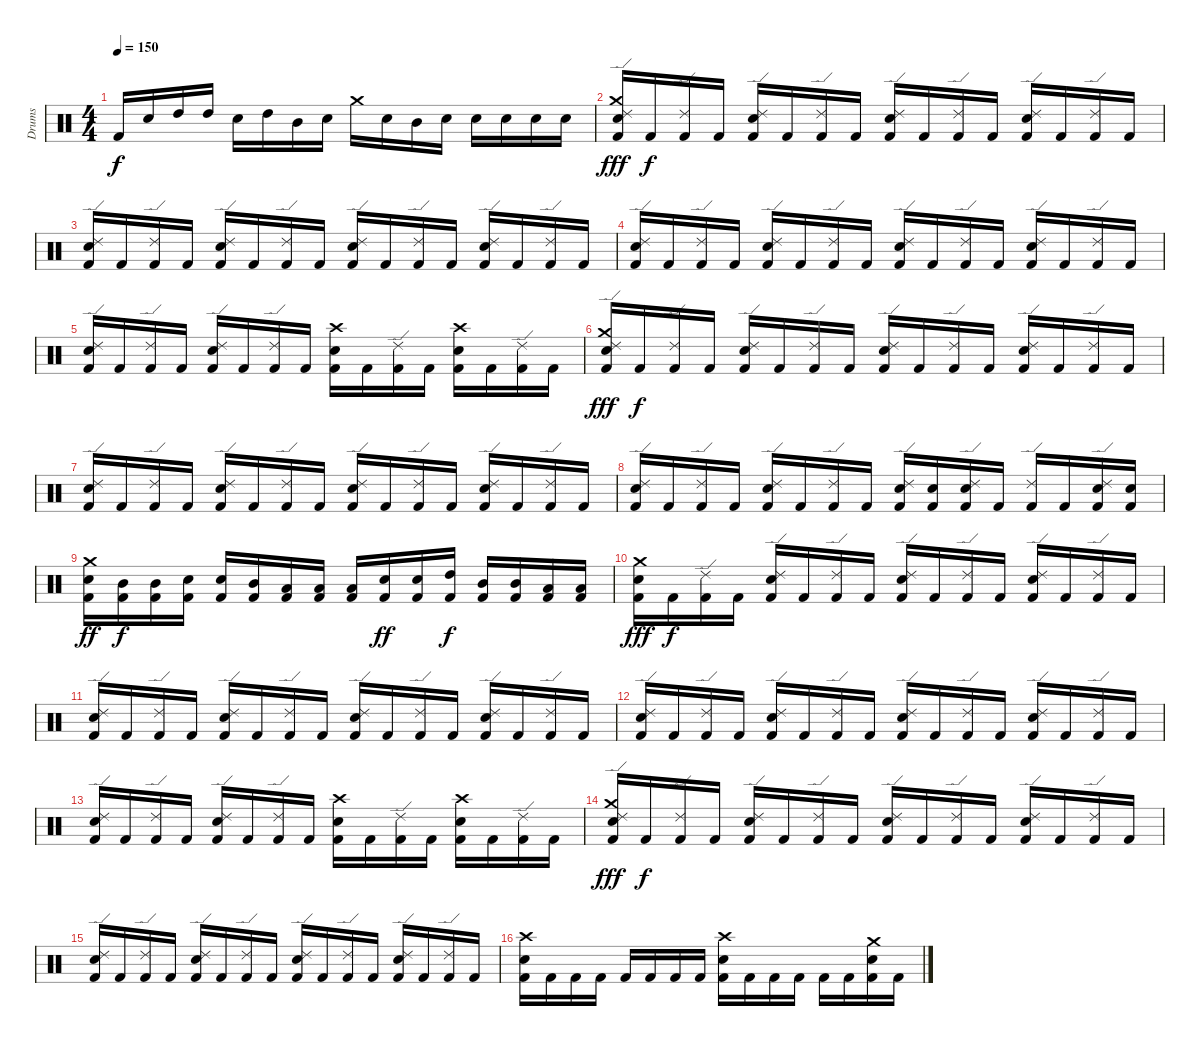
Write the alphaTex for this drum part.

\track ("Drums" "Drums") {instrument percussion}
\staff {score}
\articulation defaults
\ts (4 4)
\tempo 150
\clef neutral
\ks c "Kick (hit) 2".16{dy f} "Electric Snare (hit)".16 "High Tom (hit)".16 "High Tom (hit)".16 "Electric Snare (hit)".16 "High Tom (hit)".16 "Mid Tom (hit)".16 "Electric Snare (hit)".16 "Crash medium (hit)".16 "Electric Snare (hit)".16 "Mid Tom (hit)".16 "Electric Snare (hit)".16 "Electric Snare (hit)".16 "Electric Snare (hit)".16 "Electric Snare (hit)".16 "Electric Snare (hit)".16
|
("Crash medium (hit)" "Ride (edge) 2" "Electric Snare (hit)" "Kick (hit) 2").16{dy fff} "Kick (hit) 2".16{dy f} ("Ride (edge) 2" "Kick (hit) 2").16 "Kick (hit) 2".16 ("Ride (edge) 2" "Electric Snare (hit)" "Kick (hit) 2").16 "Kick (hit) 2".16 ("Ride (edge) 2" "Kick (hit) 2").16 "Kick (hit) 2".16 ("Ride (edge) 2" "Electric Snare (hit)" "Kick (hit) 2").16 "Kick (hit) 2".16 ("Ride (edge) 2" "Kick (hit) 2").16 "Kick (hit) 2".16 ("Ride (edge) 2" "Electric Snare (hit)" "Kick (hit) 2").16 "Kick (hit) 2".16 ("Ride (edge) 2" "Kick (hit) 2").16 "Kick (hit) 2".16 |
("Ride (edge) 2" "Electric Snare (hit)" "Kick (hit) 2").16 "Kick (hit) 2".16 ("Ride (edge) 2" "Kick (hit) 2").16 "Kick (hit) 2".16 ("Ride (edge) 2" "Electric Snare (hit)" "Kick (hit) 2").16 "Kick (hit) 2".16 ("Ride (edge) 2" "Kick (hit) 2").16 "Kick (hit) 2".16 ("Ride (edge) 2" "Electric Snare (hit)" "Kick (hit) 2").16 "Kick (hit) 2".16 ("Ride (edge) 2" "Kick (hit) 2").16 "Kick (hit) 2".16 ("Ride (edge) 2" "Electric Snare (hit)" "Kick (hit) 2").16 "Kick (hit) 2".16 ("Ride (edge) 2" "Kick (hit) 2").16 "Kick (hit) 2".16 |
("Ride (edge) 2" "Electric Snare (hit)" "Kick (hit) 2").16 "Kick (hit) 2".16 ("Ride (edge) 2" "Kick (hit) 2").16 "Kick (hit) 2".16 ("Ride (edge) 2" "Electric Snare (hit)" "Kick (hit) 2").16 "Kick (hit) 2".16 ("Ride (edge) 2" "Kick (hit) 2").16 "Kick (hit) 2".16 ("Ride (edge) 2" "Electric Snare (hit)" "Kick (hit) 2").16 "Kick (hit) 2".16 ("Ride (edge) 2" "Kick (hit) 2").16 "Kick (hit) 2".16 ("Ride (edge) 2" "Electric Snare (hit)" "Kick (hit) 2").16 "Kick (hit) 2".16 ("Ride (edge) 2" "Kick (hit) 2").16 "Kick (hit) 2".16 |
("Ride (edge) 2" "Electric Snare (hit)" "Kick (hit) 2").16 "Kick (hit) 2".16 ("Ride (edge) 2" "Kick (hit) 2").16 "Kick (hit) 2".16 ("Ride (edge) 2" "Electric Snare (hit)" "Kick (hit) 2").16 "Kick (hit) 2".16 ("Ride (edge) 2" "Kick (hit) 2").16 "Kick (hit) 2".16 ("Crash high (hit)" "Electric Snare (hit)" "Kick (hit) 2").16 "Kick (hit) 2".16 ("Ride (edge) 2" "Kick (hit) 2").16 "Kick (hit) 2".16 ("Crash high (hit)" "Electric Snare (hit)" "Kick (hit) 2").16 "Kick (hit) 2".16 ("Ride (edge) 2" "Kick (hit) 2").16 "Kick (hit) 2".16 |
("Crash medium (hit)" "Ride (edge) 2" "Electric Snare (hit)" "Kick (hit) 2").16{dy fff} "Kick (hit) 2".16{dy f} ("Ride (edge) 2" "Kick (hit) 2").16 "Kick (hit) 2".16 ("Ride (edge) 2" "Electric Snare (hit)" "Kick (hit) 2").16 "Kick (hit) 2".16 ("Ride (edge) 2" "Kick (hit) 2").16 "Kick (hit) 2".16 ("Ride (edge) 2" "Electric Snare (hit)" "Kick (hit) 2").16 "Kick (hit) 2".16 ("Ride (edge) 2" "Kick (hit) 2").16 "Kick (hit) 2".16 ("Ride (edge) 2" "Electric Snare (hit)" "Kick (hit) 2").16 "Kick (hit) 2".16 ("Ride (edge) 2" "Kick (hit) 2").16 "Kick (hit) 2".16 |
("Ride (edge) 2" "Electric Snare (hit)" "Kick (hit) 2").16 "Kick (hit) 2".16 ("Ride (edge) 2" "Kick (hit) 2").16 "Kick (hit) 2".16 ("Ride (edge) 2" "Electric Snare (hit)" "Kick (hit) 2").16 "Kick (hit) 2".16 ("Ride (edge) 2" "Kick (hit) 2").16 "Kick (hit) 2".16 ("Ride (edge) 2" "Electric Snare (hit)" "Kick (hit) 2").16 "Kick (hit) 2".16 ("Ride (edge) 2" "Kick (hit) 2").16 "Kick (hit) 2".16 ("Ride (edge) 2" "Electric Snare (hit)" "Kick (hit) 2").16 "Kick (hit) 2".16 ("Ride (edge) 2" "Kick (hit) 2").16 "Kick (hit) 2".16 |
("Ride (edge) 2" "Electric Snare (hit)" "Kick (hit) 2").16 "Kick (hit) 2".16 ("Ride (edge) 2" "Kick (hit) 2").16 "Kick (hit) 2".16 ("Ride (edge) 2" "Electric Snare (hit)" "Kick (hit) 2").16 "Kick (hit) 2".16 ("Ride (edge) 2" "Kick (hit) 2").16 "Kick (hit) 2".16 ("Ride (edge) 2" "Electric Snare (hit)" "Kick (hit) 2").16 ("Electric Snare (hit)" "Kick (hit) 2").16 ("Ride (edge) 2" "Electric Snare (hit)" "Kick (hit) 2").16 "Kick (hit) 2".16 ("Ride (edge) 2" "Kick (hit) 2").16 "Kick (hit) 2".16 ("Ride (edge) 2" "Electric Snare (hit)" "Kick (hit) 2").16 ("Electric Snare (hit)" "Kick (hit) 2").16 |
("Crash medium (hit)" "Electric Snare (hit)" "Kick (hit) 2").16{dy ff} ("Mid Tom (hit)" "Kick (hit) 2").16{dy f} ("Mid Tom (hit)" "Kick (hit) 2").16 ("Electric Snare (hit)" "Kick (hit) 2").16 ("Electric Snare (hit)" "Kick (hit) 2").16 ("Mid Tom (hit)" "Kick (hit) 2").16 ("Low Tom (hit)" "Kick (hit) 2").16 ("Low Tom (hit)" "Kick (hit) 2").16 ("Low Tom (hit)" "Kick (hit) 2").16 ("Electric Snare (hit)" "Kick (hit) 2").16{dy ff} ("Electric Snare (hit)" "Kick (hit) 2").16 ("High Tom (hit)" "Kick (hit) 2").16{dy f} ("Mid Tom (hit)" "Kick (hit) 2").16 ("Mid Tom (hit)" "Kick (hit) 2").16 ("Low Tom (hit)" "Kick (hit) 2").16 ("Low Tom (hit)" "Kick (hit) 2").16 |
("Crash medium (hit)" "Electric Snare (hit)" "Kick (hit) 2").16{dy fff} "Kick (hit) 2".16{dy f} ("Ride (edge) 2" "Kick (hit) 2").16 "Kick (hit) 2".16 ("Ride (edge) 2" "Electric Snare (hit)" "Kick (hit) 2").16 "Kick (hit) 2".16 ("Ride (edge) 2" "Kick (hit) 2").16 "Kick (hit) 2".16 ("Ride (edge) 2" "Electric Snare (hit)" "Kick (hit) 2").16 "Kick (hit) 2".16 ("Ride (edge) 2" "Kick (hit) 2").16 "Kick (hit) 2".16 ("Ride (edge) 2" "Electric Snare (hit)" "Kick (hit) 2").16 "Kick (hit) 2".16 ("Ride (edge) 2" "Kick (hit) 2").16 "Kick (hit) 2".16 |
("Ride (edge) 2" "Electric Snare (hit)" "Kick (hit) 2").16 "Kick (hit) 2".16 ("Ride (edge) 2" "Kick (hit) 2").16 "Kick (hit) 2".16 ("Ride (edge) 2" "Electric Snare (hit)" "Kick (hit) 2").16 "Kick (hit) 2".16 ("Ride (edge) 2" "Kick (hit) 2").16 "Kick (hit) 2".16 ("Ride (edge) 2" "Electric Snare (hit)" "Kick (hit) 2").16 "Kick (hit) 2".16 ("Ride (edge) 2" "Kick (hit) 2").16 "Kick (hit) 2".16 ("Ride (edge) 2" "Electric Snare (hit)" "Kick (hit) 2").16 "Kick (hit) 2".16 ("Ride (edge) 2" "Kick (hit) 2").16 "Kick (hit) 2".16 |
("Ride (edge) 2" "Electric Snare (hit)" "Kick (hit) 2").16 "Kick (hit) 2".16 ("Ride (edge) 2" "Kick (hit) 2").16 "Kick (hit) 2".16 ("Ride (edge) 2" "Electric Snare (hit)" "Kick (hit) 2").16 "Kick (hit) 2".16 ("Ride (edge) 2" "Kick (hit) 2").16 "Kick (hit) 2".16 ("Ride (edge) 2" "Electric Snare (hit)" "Kick (hit) 2").16 "Kick (hit) 2".16 ("Ride (edge) 2" "Kick (hit) 2").16 "Kick (hit) 2".16 ("Ride (edge) 2" "Electric Snare (hit)" "Kick (hit) 2").16 "Kick (hit) 2".16 ("Ride (edge) 2" "Kick (hit) 2").16 "Kick (hit) 2".16 |
("Ride (edge) 2" "Electric Snare (hit)" "Kick (hit) 2").16 "Kick (hit) 2".16 ("Ride (edge) 2" "Kick (hit) 2").16 "Kick (hit) 2".16 ("Ride (edge) 2" "Electric Snare (hit)" "Kick (hit) 2").16 "Kick (hit) 2".16 ("Ride (edge) 2" "Kick (hit) 2").16 "Kick (hit) 2".16 ("Crash high (hit)" "Electric Snare (hit)" "Kick (hit) 2").16 "Kick (hit) 2".16 ("Ride (edge) 2" "Kick (hit) 2").16 "Kick (hit) 2".16 ("Crash high (hit)" "Electric Snare (hit)" "Kick (hit) 2").16 "Kick (hit) 2".16 ("Ride (edge) 2" "Kick (hit) 2").16 "Kick (hit) 2".16 |
("Crash medium (hit)" "Ride (edge) 2" "Electric Snare (hit)" "Kick (hit) 2").16{dy fff} "Kick (hit) 2".16{dy f} ("Ride (edge) 2" "Kick (hit) 2").16 "Kick (hit) 2".16 ("Ride (edge) 2" "Electric Snare (hit)" "Kick (hit) 2").16 "Kick (hit) 2".16 ("Ride (edge) 2" "Kick (hit) 2").16 "Kick (hit) 2".16 ("Ride (edge) 2" "Electric Snare (hit)" "Kick (hit) 2").16 "Kick (hit) 2".16 ("Ride (edge) 2" "Kick (hit) 2").16 "Kick (hit) 2".16 ("Ride (edge) 2" "Electric Snare (hit)" "Kick (hit) 2").16 "Kick (hit) 2".16 ("Ride (edge) 2" "Kick (hit) 2").16 "Kick (hit) 2".16 |
("Ride (edge) 2" "Electric Snare (hit)" "Kick (hit) 2").16 "Kick (hit) 2".16 ("Ride (edge) 2" "Kick (hit) 2").16 "Kick (hit) 2".16 ("Ride (edge) 2" "Electric Snare (hit)" "Kick (hit) 2").16 "Kick (hit) 2".16 ("Ride (edge) 2" "Kick (hit) 2").16 "Kick (hit) 2".16 ("Ride (edge) 2" "Electric Snare (hit)" "Kick (hit) 2").16 "Kick (hit) 2".16 ("Ride (edge) 2" "Kick (hit) 2").16 "Kick (hit) 2".16 ("Ride (edge) 2" "Electric Snare (hit)" "Kick (hit) 2").16 "Kick (hit) 2".16 ("Ride (edge) 2" "Kick (hit) 2").16 "Kick (hit) 2".16 |
("Crash high (hit)" "Electric Snare (hit)" "Kick (hit) 2").16 "Kick (hit) 2".16 "Kick (hit) 2".16 "Kick (hit) 2".16 "Kick (hit) 2".16 "Kick (hit) 2".16 "Kick (hit) 2".16 "Kick (hit) 2".16 ("Crash high (hit)" "Electric Snare (hit)" "Kick (hit) 2").16 "Kick (hit) 2".16 "Kick (hit) 2".16 "Kick (hit) 2".16 "Kick (hit) 2".16 "Kick (hit) 2".16 ("Crash medium (hit)" "Electric Snare (hit)" "Kick (hit) 2").16 "Kick (hit) 2".16
